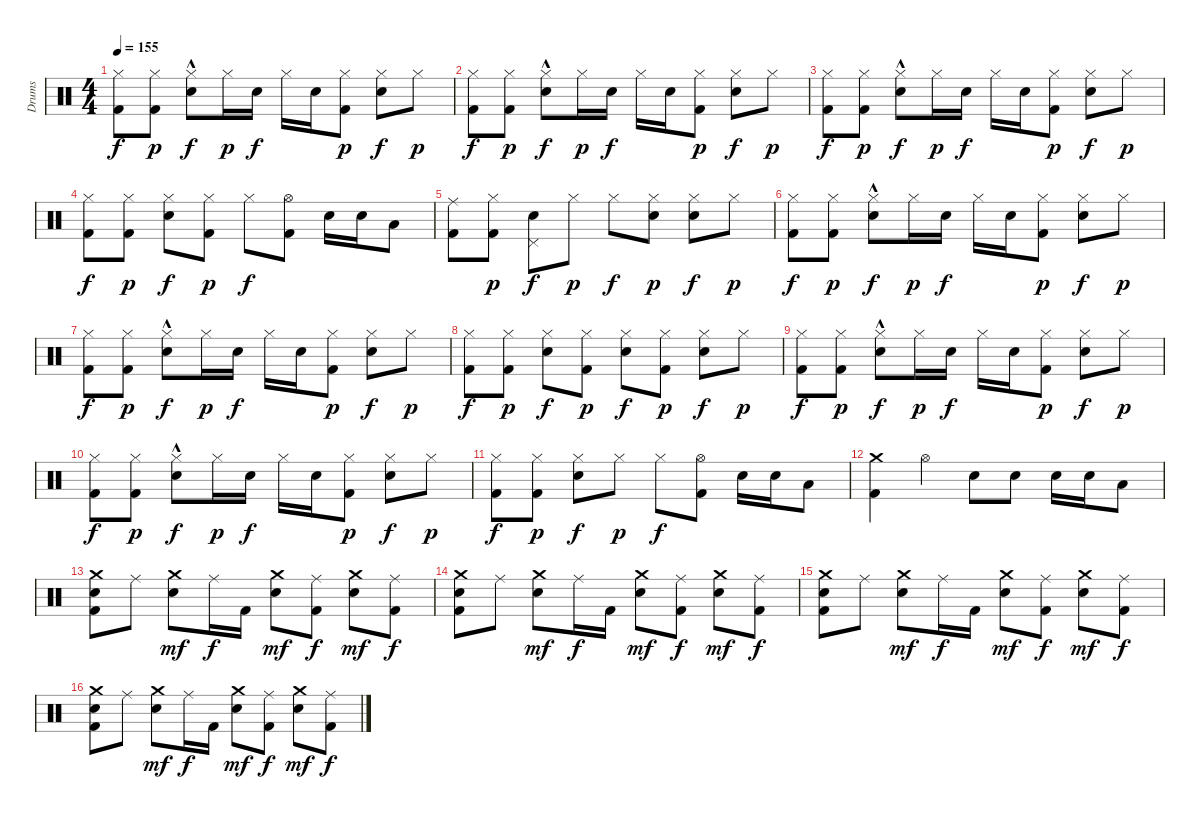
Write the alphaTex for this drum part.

\track ("Drums" "Drums") {instrument percussion}
\staff {score}
\articulation defaults
\ts (4 4)
\tempo 155
\clef neutral
\ks c
("Hi-Hat (closed)" "Kick (hit) 2").8{dy f} ("Kick (hit) 2" "Hi-Hat (closed)").8{dy p} ("Hi-Hat (closed)" "Snare (hit) 2"{hac}).8{dy f} "Hi-Hat (closed)".16{dy p} "Snare (hit) 2".16{dy f} "Hi-Hat (closed)".16 "Snare (hit) 2".16 ("Kick (hit) 2" "Hi-Hat (closed)").8{dy p} ("Hi-Hat (closed)" "Snare (hit) 2").8{dy f} "Hi-Hat (closed)".8{dy p} |
("Hi-Hat (closed)" "Kick (hit) 2").8{dy f} ("Kick (hit) 2" "Hi-Hat (closed)").8{dy p} ("Hi-Hat (closed)" "Snare (hit) 2"{hac}).8{dy f} "Hi-Hat (closed)".16{dy p} "Snare (hit) 2".16{dy f} "Hi-Hat (closed)".16 "Snare (hit) 2".16 ("Kick (hit) 2" "Hi-Hat (closed)").8{dy p} ("Hi-Hat (closed)" "Snare (hit) 2").8{dy f} "Hi-Hat (closed)".8{dy p} |
("Hi-Hat (closed)" "Kick (hit) 2").8{dy f} ("Kick (hit) 2" "Hi-Hat (closed)").8{dy p} ("Hi-Hat (closed)" "Snare (hit) 2"{hac}).8{dy f} "Hi-Hat (closed)".16{dy p} "Snare (hit) 2".16{dy f} "Hi-Hat (closed)".16 "Snare (hit) 2".16 ("Kick (hit) 2" "Hi-Hat (closed)").8{dy p} ("Hi-Hat (closed)" "Snare (hit) 2").8{dy f} "Hi-Hat (closed)".8{dy p} |
("Hi-Hat (closed)" "Kick (hit) 2").8{dy f} ("Hi-Hat (closed)" "Kick (hit) 2").8{dy p} ("Hi-Hat (closed)" "Snare (hit) 2").8{dy f} ("Hi-Hat (closed)" "Kick (hit) 2").8{dy p} "Hi-Hat (closed)".8{dy f} ("Hi-Hat (open)" "Kick (hit) 2").8 "Snare (hit) 2".16 "Snare (hit) 2".16 "Low Tom (hit)".8 |
("Ride (middle)" "Kick (hit) 2").8 ("Kick (hit) 2" "Hi-Hat (closed)").8{dy p} ("Snare (hit) 2" "Pedal Hi-Hat (hit)").8{dy f} "Hi-Hat (closed)".8{dy p} "Hi-Hat (closed)".8{dy f} ("Snare (hit)" "Hi-Hat (closed)").8{dy p} ("Snare (hit) 2" "Hi-Hat (closed)").8{dy f} "Hi-Hat (closed)".8{dy p} |
("Hi-Hat (closed)" "Kick (hit) 2").8{dy f} ("Kick (hit) 2" "Hi-Hat (closed)").8{dy p} ("Hi-Hat (closed)" "Snare (hit) 2"{hac}).8{dy f} "Hi-Hat (closed)".16{dy p} "Snare (hit) 2".16{dy f} "Hi-Hat (closed)".16 "Snare (hit) 2".16 ("Kick (hit) 2" "Hi-Hat (closed)").8{dy p} ("Hi-Hat (closed)" "Snare (hit) 2").8{dy f} "Hi-Hat (closed)".8{dy p} |
("Hi-Hat (closed)" "Kick (hit) 2").8{dy f} ("Kick (hit) 2" "Hi-Hat (closed)").8{dy p} ("Hi-Hat (closed)" "Snare (hit) 2"{hac}).8{dy f} "Hi-Hat (closed)".16{dy p} "Snare (hit) 2".16{dy f} "Hi-Hat (closed)".16 "Snare (hit) 2".16 ("Kick (hit) 2" "Hi-Hat (closed)").8{dy p} ("Hi-Hat (closed)" "Snare (hit) 2").8{dy f} "Hi-Hat (closed)".8{dy p} |
("Hi-Hat (closed)" "Kick (hit) 2").8{dy f} ("Hi-Hat (closed)" "Kick (hit) 2").8{dy p} ("Hi-Hat (closed)" "Snare (hit) 2").8{dy f} ("Hi-Hat (closed)" "Kick (hit) 2").8{dy p} ("Hi-Hat (closed)" "Snare (hit) 2").8{dy f} ("Hi-Hat (closed)" "Kick (hit) 2").8{dy p} ("Hi-Hat (closed)" "Snare (hit) 2").8{dy f} "Hi-Hat (closed)".8{dy p} |
("Hi-Hat (closed)" "Kick (hit) 2").8{dy f} ("Kick (hit) 2" "Hi-Hat (closed)").8{dy p} ("Hi-Hat (closed)" "Snare (hit) 2"{hac}).8{dy f} "Hi-Hat (closed)".16{dy p} "Snare (hit) 2".16{dy f} "Hi-Hat (closed)".16 "Snare (hit) 2".16 ("Kick (hit) 2" "Hi-Hat (closed)").8{dy p} ("Hi-Hat (closed)" "Snare (hit) 2").8{dy f} "Hi-Hat (closed)".8{dy p} |
("Hi-Hat (closed)" "Kick (hit) 2").8{dy f} ("Kick (hit) 2" "Hi-Hat (closed)").8{dy p} ("Hi-Hat (closed)" "Snare (hit) 2"{hac}).8{dy f} "Hi-Hat (closed)".16{dy p} "Snare (hit) 2".16{dy f} "Hi-Hat (closed)".16 "Snare (hit) 2".16 ("Kick (hit) 2" "Hi-Hat (closed)").8{dy p} ("Hi-Hat (closed)" "Snare (hit) 2").8{dy f} "Hi-Hat (closed)".8{dy p} |
("Hi-Hat (closed)" "Kick (hit) 2").8{dy f} ("Hi-Hat (closed)" "Kick (hit) 2").8{dy p} ("Hi-Hat (closed)" "Snare (hit) 2").8{dy f} "Hi-Hat (closed)".8{dy p} "Hi-Hat (closed)".8{dy f} ("Hi-Hat (open)" "Kick (hit) 2").8 "Snare (hit) 2".16 "Snare (hit) 2".16 "Low Tom (hit)".8 |
("Kick (hit) 2" "Crash medium (hit)").4 "Hi-Hat (open)".4 "Snare (hit) 2".8 "Snare (hit) 2".8 "Snare (hit) 2".16 "Snare (hit) 2".16 "Low Tom (hit)".8 |
("Crash medium (hit)" "Snare (hit) 2" "Kick (hit) 2").8 "Ride (middle)".8 ("Crash medium (hit)" "Snare (hit) 2").8{dy mf} "Ride (middle)".16{dy f} "Kick (hit) 2".16 ("Crash medium (hit)" "Snare (hit) 2").8{dy mf} ("Ride (middle)" "Kick (hit) 2").8{dy f} ("Crash medium (hit)" "Snare (hit) 2").8{dy mf} ("Ride (middle)" "Kick (hit) 2").8{dy f} |
("Crash medium (hit)" "Snare (hit) 2" "Kick (hit) 2").8 "Ride (middle)".8 ("Crash medium (hit)" "Snare (hit) 2").8{dy mf} "Ride (middle)".16{dy f} "Kick (hit) 2".16 ("Crash medium (hit)" "Snare (hit) 2").8{dy mf} ("Ride (middle)" "Kick (hit) 2").8{dy f} ("Crash medium (hit)" "Snare (hit) 2").8{dy mf} ("Ride (middle)" "Kick (hit) 2").8{dy f} |
("Crash medium (hit)" "Snare (hit) 2" "Kick (hit) 2").8 "Ride (middle)".8 ("Crash medium (hit)" "Snare (hit) 2").8{dy mf} "Ride (middle)".16{dy f} "Kick (hit) 2".16 ("Crash medium (hit)" "Snare (hit) 2").8{dy mf} ("Ride (middle)" "Kick (hit) 2").8{dy f} ("Crash medium (hit)" "Snare (hit) 2").8{dy mf} ("Ride (middle)" "Kick (hit) 2").8{dy f} |
("Crash medium (hit)" "Snare (hit) 2" "Kick (hit) 2").8 "Ride (middle)".8 ("Crash medium (hit)" "Snare (hit) 2").8{dy mf} "Ride (middle)".16{dy f} "Kick (hit) 2".16 ("Crash medium (hit)" "Snare (hit) 2").8{dy mf} ("Ride (middle)" "Kick (hit) 2").8{dy f} ("Crash medium (hit)" "Snare (hit) 2").8{dy mf} ("Ride (middle)" "Kick (hit) 2").8{dy f}
